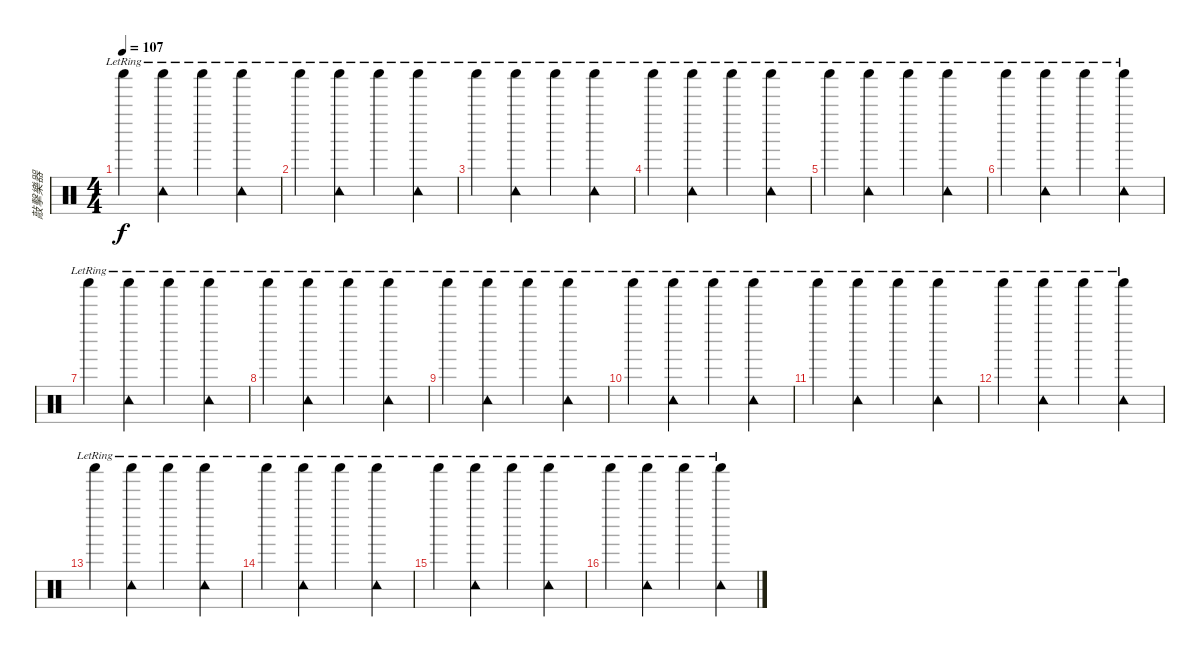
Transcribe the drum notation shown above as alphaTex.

\track ("敲擊樂器" "敲擊樂器") {instrument percussion}
\staff {score}
\articulation defaults
\ts (4 4)
\tempo 107
\clef neutral
\ks c "Shaker (hit)"{lr}.4{dy f}
("Tambourine (hit)"{lr} "Shaker (hit)"{lr}).4 "Shaker (hit)"{lr}.4 ("Tambourine (hit)"{lr} "Shaker (hit)"{lr}).4 |
"Shaker (hit)"{lr}.4 ("Tambourine (hit)"{lr} "Shaker (hit)"{lr}).4 "Shaker (hit)"{lr}.4 ("Tambourine (hit)"{lr} "Shaker (hit)"{lr}).4 |
"Shaker (hit)"{lr}.4 ("Tambourine (hit)"{lr} "Shaker (hit)"{lr}).4 "Shaker (hit)"{lr}.4 ("Tambourine (hit)"{lr} "Shaker (hit)"{lr}).4 |
"Shaker (hit)"{lr}.4 ("Tambourine (hit)"{lr} "Shaker (hit)"{lr}).4 "Shaker (hit)"{lr}.4 ("Tambourine (hit)"{lr} "Shaker (hit)"{lr}).4 |
"Shaker (hit)"{lr}.4 ("Tambourine (hit)"{lr} "Shaker (hit)"{lr}).4 "Shaker (hit)"{lr}.4 ("Tambourine (hit)"{lr} "Shaker (hit)"{lr}).4 |
"Shaker (hit)"{lr}.4 ("Tambourine (hit)"{lr} "Shaker (hit)"{lr}).4 "Shaker (hit)"{lr}.4 ("Tambourine (hit)"{lr} "Shaker (hit)"{lr}).4 |
"Shaker (hit)"{lr}.4 ("Tambourine (hit)"{lr} "Shaker (hit)"{lr}).4 "Shaker (hit)"{lr}.4 ("Tambourine (hit)"{lr} "Shaker (hit)"{lr}).4 |
"Shaker (hit)"{lr}.4 ("Tambourine (hit)"{lr} "Shaker (hit)"{lr}).4 "Shaker (hit)"{lr}.4 ("Tambourine (hit)"{lr} "Shaker (hit)"{lr}).4 |
"Shaker (hit)"{lr}.4 ("Tambourine (hit)"{lr} "Shaker (hit)"{lr}).4 "Shaker (hit)"{lr}.4 ("Tambourine (hit)"{lr} "Shaker (hit)"{lr}).4 |
"Shaker (hit)"{lr}.4 ("Tambourine (hit)"{lr} "Shaker (hit)"{lr}).4 "Shaker (hit)"{lr}.4 ("Tambourine (hit)"{lr} "Shaker (hit)"{lr}).4 |
"Shaker (hit)"{lr}.4 ("Tambourine (hit)"{lr} "Shaker (hit)"{lr}).4 "Shaker (hit)"{lr}.4 ("Tambourine (hit)"{lr} "Shaker (hit)"{lr}).4 |
"Shaker (hit)"{lr}.4 ("Tambourine (hit)"{lr} "Shaker (hit)"{lr}).4 "Shaker (hit)"{lr}.4 ("Tambourine (hit)"{lr} "Shaker (hit)"{lr}).4 |
"Shaker (hit)"{lr}.4 ("Tambourine (hit)"{lr} "Shaker (hit)"{lr}).4 "Shaker (hit)"{lr}.4 ("Tambourine (hit)"{lr} "Shaker (hit)"{lr}).4 |
"Shaker (hit)"{lr}.4 ("Tambourine (hit)"{lr} "Shaker (hit)"{lr}).4 "Shaker (hit)"{lr}.4 ("Tambourine (hit)"{lr} "Shaker (hit)"{lr}).4 |
"Shaker (hit)"{lr}.4 ("Tambourine (hit)"{lr} "Shaker (hit)"{lr}).4 "Shaker (hit)"{lr}.4 ("Tambourine (hit)"{lr} "Shaker (hit)"{lr}).4 |
"Shaker (hit)"{lr}.4 ("Tambourine (hit)"{lr} "Shaker (hit)"{lr}).4 "Shaker (hit)"{lr}.4 ("Tambourine (hit)"{lr} "Shaker (hit)"{lr}).4
